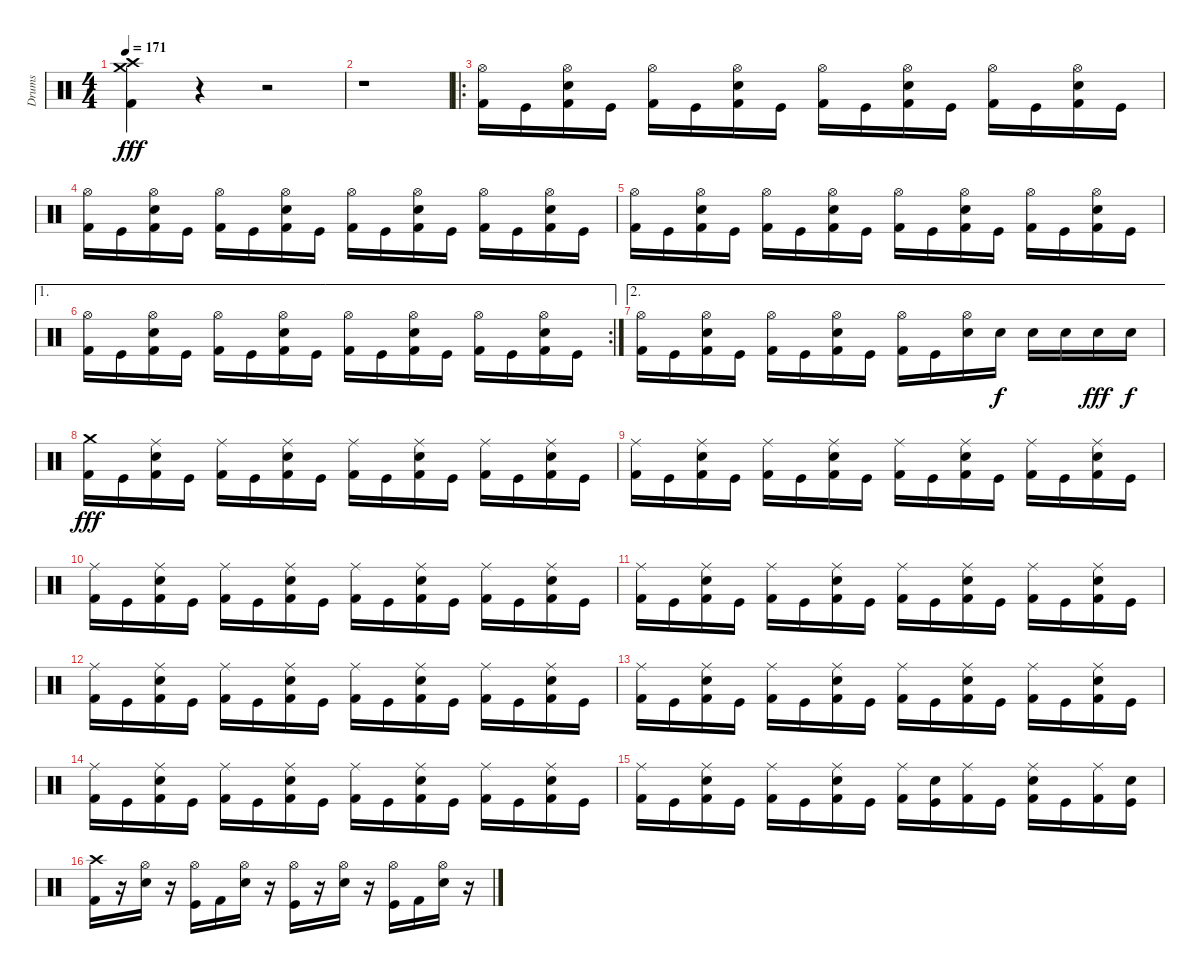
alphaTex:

\track ("Drums" "Drums") {instrument percussion}
\staff {score}
\articulation defaults
\ts (4 4)
\tempo 171
\clef neutral
\ks c
("Crash medium (hit)" "Crash high (hit)" "Kick (hit) 2").4{dy fff} r.4 r.2 |
r.1 |
\ro
("Hi-Hat (open)" "Kick (hit) 2").16 "Kick (hit)".16 ("Hi-Hat (open)" "Electric Snare (hit)" "Kick (hit) 2").16 "Kick (hit)".16 ("Hi-Hat (open)" "Kick (hit) 2").16 "Kick (hit)".16 ("Hi-Hat (open)" "Electric Snare (hit)" "Kick (hit) 2").16 "Kick (hit)".16 ("Hi-Hat (open)" "Kick (hit) 2").16 "Kick (hit)".16 ("Hi-Hat (open)" "Electric Snare (hit)" "Kick (hit) 2").16 "Kick (hit)".16 ("Hi-Hat (open)" "Kick (hit) 2").16 "Kick (hit)".16 ("Hi-Hat (open)" "Electric Snare (hit)" "Kick (hit) 2").16 "Kick (hit)".16 |
("Hi-Hat (open)" "Kick (hit) 2").16 "Kick (hit)".16 ("Hi-Hat (open)" "Electric Snare (hit)" "Kick (hit) 2").16 "Kick (hit)".16 ("Hi-Hat (open)" "Kick (hit) 2").16 "Kick (hit)".16 ("Hi-Hat (open)" "Electric Snare (hit)" "Kick (hit) 2").16 "Kick (hit)".16 ("Hi-Hat (open)" "Kick (hit) 2").16 "Kick (hit)".16 ("Hi-Hat (open)" "Electric Snare (hit)" "Kick (hit) 2").16 "Kick (hit)".16 ("Hi-Hat (open)" "Kick (hit) 2").16 "Kick (hit)".16 ("Hi-Hat (open)" "Electric Snare (hit)" "Kick (hit) 2").16 "Kick (hit)".16 |
("Hi-Hat (open)" "Kick (hit) 2").16 "Kick (hit)".16 ("Hi-Hat (open)" "Electric Snare (hit)" "Kick (hit) 2").16 "Kick (hit)".16 ("Hi-Hat (open)" "Kick (hit) 2").16 "Kick (hit)".16 ("Hi-Hat (open)" "Electric Snare (hit)" "Kick (hit) 2").16 "Kick (hit)".16 ("Hi-Hat (open)" "Kick (hit) 2").16 "Kick (hit)".16 ("Hi-Hat (open)" "Electric Snare (hit)" "Kick (hit) 2").16 "Kick (hit)".16 ("Hi-Hat (open)" "Kick (hit) 2").16 "Kick (hit)".16 ("Hi-Hat (open)" "Electric Snare (hit)" "Kick (hit) 2").16 "Kick (hit)".16 |
\ae 1
\rc 2
("Hi-Hat (open)" "Kick (hit) 2").16 "Kick (hit)".16 ("Hi-Hat (open)" "Electric Snare (hit)" "Kick (hit) 2").16 "Kick (hit)".16 ("Hi-Hat (open)" "Kick (hit) 2").16 "Kick (hit)".16 ("Hi-Hat (open)" "Electric Snare (hit)" "Kick (hit) 2").16 "Kick (hit)".16 ("Hi-Hat (open)" "Kick (hit) 2").16 "Kick (hit)".16 ("Hi-Hat (open)" "Electric Snare (hit)" "Kick (hit) 2").16 "Kick (hit)".16 ("Hi-Hat (open)" "Kick (hit) 2").16 "Kick (hit)".16 ("Hi-Hat (open)" "Electric Snare (hit)" "Kick (hit) 2").16 "Kick (hit)".16 |
\ae 2
("Hi-Hat (open)" "Kick (hit) 2").16 "Kick (hit)".16 ("Hi-Hat (open)" "Electric Snare (hit)" "Kick (hit) 2").16 "Kick (hit)".16 ("Hi-Hat (open)" "Kick (hit) 2").16 "Kick (hit)".16 ("Hi-Hat (open)" "Electric Snare (hit)" "Kick (hit) 2").16 "Kick (hit)".16 ("Hi-Hat (open)" "Kick (hit) 2").16 "Kick (hit)".16 ("Hi-Hat (open)" "Electric Snare (hit)").16 "Electric Snare (hit)".16{dy f} "Electric Snare (hit)".16 "Electric Snare (hit)".16 "Electric Snare (hit)".16{dy fff} "Electric Snare (hit)".16{dy f} |
("Crash medium (hit)" "Kick (hit) 2").16{dy fff} "Kick (hit)".16 ("Ride (middle)" "Electric Snare (hit)" "Kick (hit) 2").16 "Kick (hit)".16 ("Ride (middle)" "Kick (hit) 2").16 "Kick (hit)".16 ("Ride (middle)" "Electric Snare (hit)" "Kick (hit) 2").16 "Kick (hit)".16 ("Ride (middle)" "Kick (hit) 2").16 "Kick (hit)".16 ("Ride (middle)" "Electric Snare (hit)" "Kick (hit) 2").16 "Kick (hit)".16 ("Ride (middle)" "Kick (hit) 2").16 "Kick (hit)".16 ("Ride (middle)" "Electric Snare (hit)" "Kick (hit) 2").16 "Kick (hit)".16 |
("Ride (middle)" "Kick (hit) 2").16 "Kick (hit)".16 ("Ride (middle)" "Electric Snare (hit)" "Kick (hit) 2").16 "Kick (hit)".16 ("Ride (middle)" "Kick (hit) 2").16 "Kick (hit)".16 ("Ride (middle)" "Electric Snare (hit)" "Kick (hit) 2").16 "Kick (hit)".16 ("Ride (middle)" "Kick (hit) 2").16 "Kick (hit)".16 ("Ride (middle)" "Electric Snare (hit)" "Kick (hit) 2").16 "Kick (hit)".16 ("Ride (middle)" "Kick (hit) 2").16 "Kick (hit)".16 ("Ride (middle)" "Electric Snare (hit)" "Kick (hit) 2").16 "Kick (hit)".16 |
("Ride (middle)" "Kick (hit) 2").16 "Kick (hit)".16 ("Ride (middle)" "Electric Snare (hit)" "Kick (hit) 2").16 "Kick (hit)".16 ("Ride (middle)" "Kick (hit) 2").16 "Kick (hit)".16 ("Ride (middle)" "Electric Snare (hit)" "Kick (hit) 2").16 "Kick (hit)".16 ("Ride (middle)" "Kick (hit) 2").16 "Kick (hit)".16 ("Ride (middle)" "Electric Snare (hit)" "Kick (hit) 2").16 "Kick (hit)".16 ("Ride (middle)" "Kick (hit) 2").16 "Kick (hit)".16 ("Ride (middle)" "Electric Snare (hit)" "Kick (hit) 2").16 "Kick (hit)".16 |
("Ride (middle)" "Kick (hit) 2").16 "Kick (hit)".16 ("Ride (middle)" "Electric Snare (hit)" "Kick (hit) 2").16 "Kick (hit)".16 ("Ride (middle)" "Kick (hit) 2").16 "Kick (hit)".16 ("Ride (middle)" "Electric Snare (hit)" "Kick (hit) 2").16 "Kick (hit)".16 ("Ride (middle)" "Kick (hit) 2").16 "Kick (hit)".16 ("Ride (middle)" "Electric Snare (hit)" "Kick (hit) 2").16 "Kick (hit)".16 ("Ride (middle)" "Kick (hit) 2").16 "Kick (hit)".16 ("Ride (middle)" "Electric Snare (hit)" "Kick (hit) 2").16 "Kick (hit)".16 |
("Ride (middle)" "Kick (hit) 2").16 "Kick (hit)".16 ("Ride (middle)" "Electric Snare (hit)" "Kick (hit) 2").16 "Kick (hit)".16 ("Ride (middle)" "Kick (hit) 2").16 "Kick (hit)".16 ("Ride (middle)" "Electric Snare (hit)" "Kick (hit) 2").16 "Kick (hit)".16 ("Ride (middle)" "Kick (hit) 2").16 "Kick (hit)".16 ("Ride (middle)" "Electric Snare (hit)" "Kick (hit) 2").16 "Kick (hit)".16 ("Ride (middle)" "Kick (hit) 2").16 "Kick (hit)".16 ("Ride (middle)" "Electric Snare (hit)" "Kick (hit) 2").16 "Kick (hit)".16 |
("Ride (middle)" "Kick (hit) 2").16 "Kick (hit)".16 ("Ride (middle)" "Electric Snare (hit)" "Kick (hit) 2").16 "Kick (hit)".16 ("Ride (middle)" "Kick (hit) 2").16 "Kick (hit)".16 ("Ride (middle)" "Electric Snare (hit)" "Kick (hit) 2").16 "Kick (hit)".16 ("Ride (middle)" "Kick (hit) 2").16 "Kick (hit)".16 ("Ride (middle)" "Electric Snare (hit)" "Kick (hit) 2").16 "Kick (hit)".16 ("Ride (middle)" "Kick (hit) 2").16 "Kick (hit)".16 ("Ride (middle)" "Electric Snare (hit)" "Kick (hit) 2").16 "Kick (hit)".16 |
("Ride (middle)" "Kick (hit) 2").16 "Kick (hit)".16 ("Ride (middle)" "Electric Snare (hit)" "Kick (hit) 2").16 "Kick (hit)".16 ("Ride (middle)" "Kick (hit) 2").16 "Kick (hit)".16 ("Ride (middle)" "Electric Snare (hit)" "Kick (hit) 2").16 "Kick (hit)".16 ("Ride (middle)" "Kick (hit) 2").16 "Kick (hit)".16 ("Ride (middle)" "Electric Snare (hit)" "Kick (hit) 2").16 "Kick (hit)".16 ("Ride (middle)" "Kick (hit) 2").16 "Kick (hit)".16 ("Ride (middle)" "Electric Snare (hit)" "Kick (hit) 2").16 "Kick (hit)".16 |
("Ride (middle)" "Kick (hit) 2").16 "Kick (hit)".16 ("Ride (middle)" "Electric Snare (hit)" "Kick (hit) 2").16 "Kick (hit)".16 ("Ride (middle)" "Kick (hit) 2").16 "Kick (hit)".16 ("Ride (middle)" "Electric Snare (hit)" "Kick (hit) 2").16 "Kick (hit)".16 ("Ride (middle)" "Kick (hit) 2").16 ("Electric Snare (hit)" "Kick (hit)").16 ("Ride (middle)" "Kick (hit) 2").16 "Kick (hit)".16 ("Ride (middle)" "Electric Snare (hit)" "Kick (hit) 2").16 "Kick (hit)".16 ("Ride (middle)" "Kick (hit) 2").16 ("Electric Snare (hit)" "Kick (hit)").16 |
("Crash high (hit)" "Kick (hit) 2").16 r.16 ("Hi-Hat (open)" "Electric Snare (hit)").16 r.16 ("Hi-Hat (open)" "Kick (hit)").16 "Kick (hit) 2".16 ("Hi-Hat (open)" "Electric Snare (hit)").16 r.16 ("Hi-Hat (open)" "Kick (hit)").16 r.16 ("Hi-Hat (open)" "Electric Snare (hit)").16 r.16 ("Hi-Hat (open)" "Kick (hit)").16 "Kick (hit) 2".16 ("Hi-Hat (open)" "Electric Snare (hit)").16 r.16
